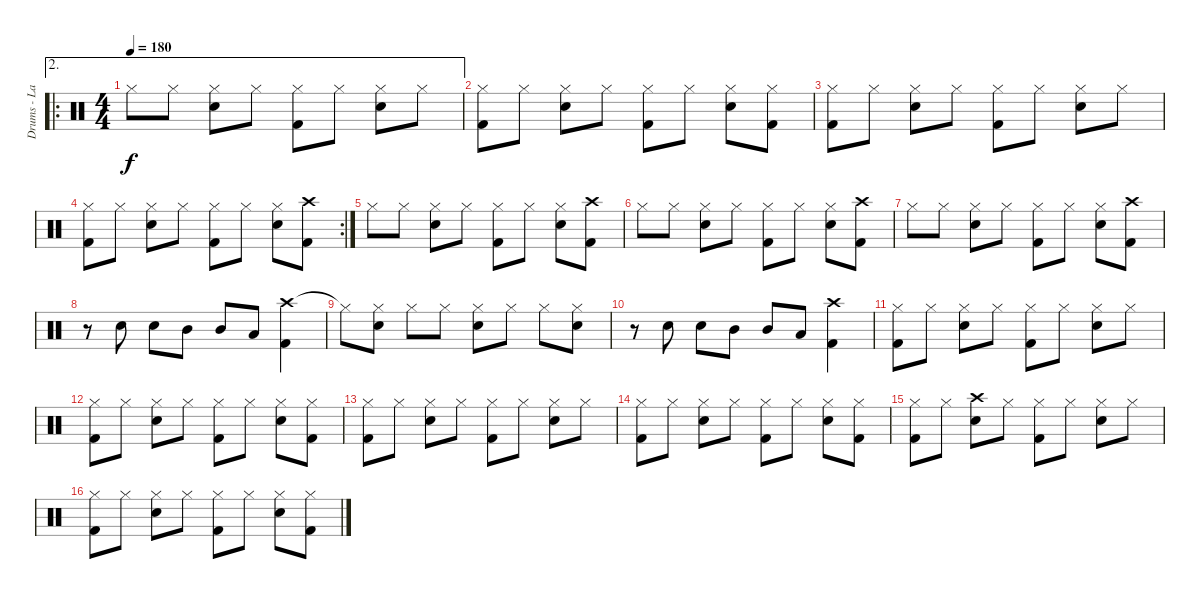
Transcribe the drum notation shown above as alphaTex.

\track ("Drums - Lars" "Drums - La") {instrument percussion}
\staff {score}
\articulation defaults
\ae 2
\ro
\ts (4 4)
\tempo 180
\clef neutral
\ks c "Hi-Hat (closed)".8{dy f} "Hi-Hat (closed)".8
("Hi-Hat (closed)" "Snare (hit) 2").8 "Hi-Hat (closed)".8 ("Hi-Hat (closed)" "Kick (hit) 2").8 "Hi-Hat (closed)".8 ("Hi-Hat (closed)" "Snare (hit) 2").8 "Hi-Hat (closed)".8 |
("Hi-Hat (closed)" "Kick (hit) 2").8 "Hi-Hat (closed)".8 ("Hi-Hat (closed)" "Snare (hit) 2").8 "Hi-Hat (closed)".8 ("Hi-Hat (closed)" "Kick (hit) 2").8 "Hi-Hat (closed)".8 ("Hi-Hat (closed)" "Snare (hit) 2").8 ("Hi-Hat (closed)" "Kick (hit) 2").8 |
("Hi-Hat (closed)" "Kick (hit) 2").8 "Hi-Hat (closed)".8 ("Hi-Hat (closed)" "Snare (hit) 2").8 "Hi-Hat (closed)".8 ("Hi-Hat (closed)" "Kick (hit) 2").8 "Hi-Hat (closed)".8 ("Hi-Hat (closed)" "Snare (hit) 2").8 "Hi-Hat (closed)".8 |
\rc 2
("Hi-Hat (closed)" "Kick (hit) 2").8 "Hi-Hat (closed)".8 ("Hi-Hat (closed)" "Snare (hit) 2").8 "Hi-Hat (closed)".8 ("Hi-Hat (closed)" "Kick (hit) 2").8 "Hi-Hat (closed)".8 ("Hi-Hat (closed)" "Snare (hit) 2").8 ("Crash high (hit)" "Kick (hit) 2").8 |
"Hi-Hat (closed)".8 "Hi-Hat (closed)".8 ("Hi-Hat (closed)" "Snare (hit) 2").8 "Hi-Hat (closed)".8 ("Hi-Hat (closed)" "Kick (hit) 2").8 "Hi-Hat (closed)".8 ("Hi-Hat (closed)" "Snare (hit) 2").8 ("Crash high (hit)" "Kick (hit) 2").8 |
"Hi-Hat (closed)".8 "Hi-Hat (closed)".8 ("Hi-Hat (closed)" "Snare (hit) 2").8 "Hi-Hat (closed)".8 ("Hi-Hat (closed)" "Kick (hit) 2").8 "Hi-Hat (closed)".8 ("Hi-Hat (closed)" "Snare (hit) 2").8 ("Crash high (hit)" "Kick (hit) 2").8 |
"Hi-Hat (closed)".8 "Hi-Hat (closed)".8 ("Hi-Hat (closed)" "Snare (hit) 2").8 "Hi-Hat (closed)".8 ("Hi-Hat (closed)" "Kick (hit) 2").8 "Hi-Hat (closed)".8 ("Hi-Hat (closed)" "Snare (hit) 2").8 ("Crash high (hit)" "Kick (hit) 2").8 |
r.8 "Snare (hit) 2".8 "Snare (hit) 2".8 "Mid Tom (hit)".8 "Mid Tom (hit)".8 "Low Tom (hit)".8 ("Crash high (hit)" "Kick (hit) 2").4 |
"Hi-Hat (closed)"{t}.8 ("Hi-Hat (closed)" "Snare (hit) 2").8 "Hi-Hat (closed)".8 "Hi-Hat (closed)".8 ("Hi-Hat (closed)" "Snare (hit) 2").8 "Hi-Hat (closed)".8 "Hi-Hat (closed)".8 ("Hi-Hat (closed)" "Snare (hit) 2").8 |
r.8 "Snare (hit) 2".8 "Snare (hit) 2".8 "Mid Tom (hit)".8 "Mid Tom (hit)".8 "Low Tom (hit)".8 ("Crash high (hit)" "Kick (hit) 2").4 |
("Hi-Hat (closed)" "Kick (hit) 2").8 "Hi-Hat (closed)".8 ("Hi-Hat (closed)" "Snare (hit) 2").8 "Hi-Hat (closed)".8 ("Hi-Hat (closed)" "Kick (hit) 2").8 "Hi-Hat (closed)".8 ("Hi-Hat (closed)" "Snare (hit) 2").8 "Hi-Hat (closed)".8 |
("Hi-Hat (closed)" "Kick (hit) 2").8 "Hi-Hat (closed)".8 ("Hi-Hat (closed)" "Snare (hit) 2").8 "Hi-Hat (closed)".8 ("Hi-Hat (closed)" "Kick (hit) 2").8 "Hi-Hat (closed)".8 ("Hi-Hat (closed)" "Snare (hit) 2").8 ("Hi-Hat (closed)" "Kick (hit) 2").8 |
("Hi-Hat (closed)" "Kick (hit) 2").8 "Hi-Hat (closed)".8 ("Hi-Hat (closed)" "Snare (hit) 2").8 "Hi-Hat (closed)".8 ("Hi-Hat (closed)" "Kick (hit) 2").8 "Hi-Hat (closed)".8 ("Hi-Hat (closed)" "Snare (hit) 2").8 "Hi-Hat (closed)".8 |
("Hi-Hat (closed)" "Kick (hit) 2").8 "Hi-Hat (closed)".8 ("Hi-Hat (closed)" "Snare (hit) 2").8 "Hi-Hat (closed)".8 ("Hi-Hat (closed)" "Kick (hit) 2").8 "Hi-Hat (closed)".8 ("Hi-Hat (closed)" "Snare (hit) 2").8 ("Hi-Hat (closed)" "Kick (hit) 2").8 |
("Hi-Hat (closed)" "Kick (hit) 2").8 "Hi-Hat (closed)".8 ("Crash high (hit)" "Snare (hit) 2").8 "Hi-Hat (closed)".8 ("Hi-Hat (closed)" "Kick (hit) 2").8 "Hi-Hat (closed)".8 ("Hi-Hat (closed)" "Snare (hit) 2").8 "Hi-Hat (closed)".8 |
("Hi-Hat (closed)" "Kick (hit) 2").8 "Hi-Hat (closed)".8 ("Hi-Hat (closed)" "Snare (hit) 2").8 "Hi-Hat (closed)".8 ("Hi-Hat (closed)" "Kick (hit) 2").8 "Hi-Hat (closed)".8 ("Hi-Hat (closed)" "Snare (hit) 2").8 ("Hi-Hat (closed)" "Kick (hit) 2").8
